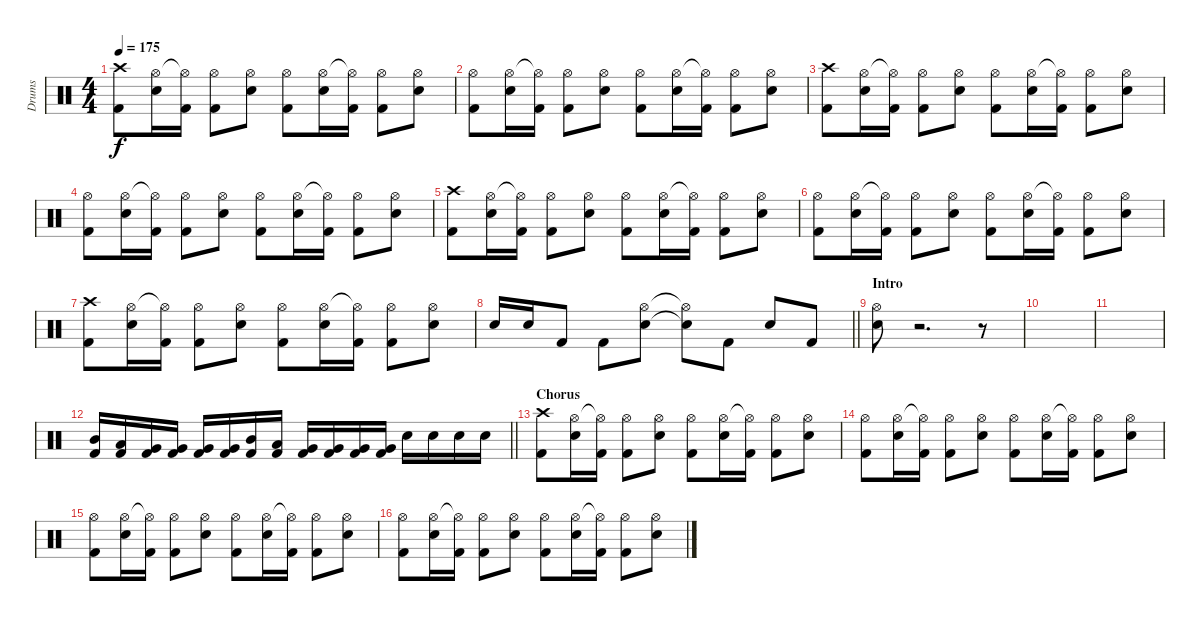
\track ("Drums" "Drums") {instrument percussion}
\staff {score}
\articulation defaults
\ts (4 4)
\tempo 175
\clef neutral
\ks c
("Crash high (hit)" "Kick (hit) 2").8{dy f} ("Hi-Hat (open)" "Electric Snare (hit)").16 ("Hi-Hat (open)"{t} "Kick (hit) 2").16 ("Hi-Hat (open)" "Kick (hit) 2").8 ("Hi-Hat (open)" "Electric Snare (hit)").8 ("Hi-Hat (open)" "Kick (hit) 2").8 ("Hi-Hat (open)" "Electric Snare (hit)").16 ("Hi-Hat (open)"{t} "Kick (hit) 2").16 ("Hi-Hat (open)" "Kick (hit) 2").8 ("Hi-Hat (open)" "Electric Snare (hit)").8 |
("Hi-Hat (open)" "Kick (hit) 2").8 ("Hi-Hat (open)" "Electric Snare (hit)").16 ("Hi-Hat (open)"{t} "Kick (hit) 2").16 ("Hi-Hat (open)" "Kick (hit) 2").8 ("Hi-Hat (open)" "Electric Snare (hit)").8 ("Hi-Hat (open)" "Kick (hit) 2").8 ("Hi-Hat (open)" "Electric Snare (hit)").16 ("Hi-Hat (open)"{t} "Kick (hit) 2").16 ("Hi-Hat (open)" "Kick (hit) 2").8 ("Hi-Hat (open)" "Electric Snare (hit)").8 |
("Crash high (hit)" "Kick (hit) 2").8 ("Hi-Hat (open)" "Electric Snare (hit)").16 ("Hi-Hat (open)"{t} "Kick (hit) 2").16 ("Hi-Hat (open)" "Kick (hit) 2").8 ("Hi-Hat (open)" "Electric Snare (hit)").8 ("Hi-Hat (open)" "Kick (hit) 2").8 ("Hi-Hat (open)" "Electric Snare (hit)").16 ("Hi-Hat (open)"{t} "Kick (hit) 2").16 ("Hi-Hat (open)" "Kick (hit) 2").8 ("Hi-Hat (open)" "Electric Snare (hit)").8 |
("Hi-Hat (open)" "Kick (hit) 2").8 ("Hi-Hat (open)" "Electric Snare (hit)").16 ("Hi-Hat (open)"{t} "Kick (hit) 2").16 ("Hi-Hat (open)" "Kick (hit) 2").8 ("Hi-Hat (open)" "Electric Snare (hit)").8 ("Hi-Hat (open)" "Kick (hit) 2").8 ("Hi-Hat (open)" "Electric Snare (hit)").16 ("Hi-Hat (open)"{t} "Kick (hit) 2").16 ("Hi-Hat (open)" "Kick (hit) 2").8 ("Hi-Hat (open)" "Electric Snare (hit)").8 |
("Crash high (hit)" "Kick (hit) 2").8 ("Hi-Hat (open)" "Electric Snare (hit)").16 ("Hi-Hat (open)"{t} "Kick (hit) 2").16 ("Hi-Hat (open)" "Kick (hit) 2").8 ("Hi-Hat (open)" "Electric Snare (hit)").8 ("Hi-Hat (open)" "Kick (hit) 2").8 ("Hi-Hat (open)" "Electric Snare (hit)").16 ("Hi-Hat (open)"{t} "Kick (hit) 2").16 ("Hi-Hat (open)" "Kick (hit) 2").8 ("Hi-Hat (open)" "Electric Snare (hit)").8 |
("Hi-Hat (open)" "Kick (hit) 2").8 ("Hi-Hat (open)" "Electric Snare (hit)").16 ("Hi-Hat (open)"{t} "Kick (hit) 2").16 ("Hi-Hat (open)" "Kick (hit) 2").8 ("Hi-Hat (open)" "Electric Snare (hit)").8 ("Hi-Hat (open)" "Kick (hit) 2").8 ("Hi-Hat (open)" "Electric Snare (hit)").16 ("Hi-Hat (open)"{t} "Kick (hit) 2").16 ("Hi-Hat (open)" "Kick (hit) 2").8 ("Hi-Hat (open)" "Electric Snare (hit)").8 |
("Crash high (hit)" "Kick (hit) 2").8 ("Hi-Hat (open)" "Electric Snare (hit)").16 ("Hi-Hat (open)"{t} "Kick (hit) 2").16 ("Hi-Hat (open)" "Kick (hit) 2").8 ("Hi-Hat (open)" "Electric Snare (hit)").8 ("Hi-Hat (open)" "Kick (hit) 2").8 ("Hi-Hat (open)" "Electric Snare (hit)").16 ("Hi-Hat (open)"{t} "Kick (hit) 2").16 ("Hi-Hat (open)" "Kick (hit) 2").8 ("Hi-Hat (open)" "Electric Snare (hit)").8 |
\barLineRight lightlight "Electric Snare (hit)".16 "Electric Snare (hit)".16 "Kick (hit) 2".8 "Kick (hit) 2".8
("Hi-Hat (open)" "Electric Snare (hit)").8 ("Hi-Hat (open)"{t} "Electric Snare (hit)"{t}).8 "Kick (hit) 2".8 "Electric Snare (hit)".8 "Kick (hit) 2".8 |
\section ("" "Intro")
("Hi-Hat (open)" "Electric Snare (hit)").8 r.2{d} r.8 |
|
|
\barLineRight lightlight
("Mid Tom (hit)" "Kick (hit) 2").16 ("Low Tom (hit)" "Kick (hit) 2").16 ("Very Low Tom (hit)" "Kick (hit) 2").16 ("Very Low Tom (hit)" "Kick (hit) 2").16 ("Very Low Tom (hit)" "Kick (hit) 2").16 ("Very Low Tom (hit)" "Kick (hit) 2").16 ("Mid Tom (hit)" "Kick (hit) 2").16 ("Low Tom (hit)" "Kick (hit) 2").16 ("Very Low Tom (hit)" "Kick (hit) 2").16 ("Very Low Tom (hit)" "Kick (hit) 2").16 ("Very Low Tom (hit)" "Kick (hit) 2").16 ("Very Low Tom (hit)" "Kick (hit) 2").16 "Electric Snare (hit)".16 "Electric Snare (hit)".16 "Electric Snare (hit)".16 "Electric Snare (hit)".16 |
\section ("" "Chorus")
("Crash high (hit)" "Kick (hit) 2").8 ("Hi-Hat (open)" "Electric Snare (hit)").16 ("Hi-Hat (open)"{t} "Kick (hit) 2").16 ("Hi-Hat (open)" "Kick (hit) 2").8 ("Hi-Hat (open)" "Electric Snare (hit)").8 ("Hi-Hat (open)" "Kick (hit) 2").8 ("Hi-Hat (open)" "Electric Snare (hit)").16 ("Hi-Hat (open)"{t} "Kick (hit) 2").16 ("Hi-Hat (open)" "Kick (hit) 2").8 ("Hi-Hat (open)" "Electric Snare (hit)").8 |
("Hi-Hat (open)" "Kick (hit) 2").8 ("Hi-Hat (open)" "Electric Snare (hit)").16 ("Hi-Hat (open)"{t} "Kick (hit) 2").16 ("Hi-Hat (open)" "Kick (hit) 2").8 ("Hi-Hat (open)" "Electric Snare (hit)").8 ("Hi-Hat (open)" "Kick (hit) 2").8 ("Hi-Hat (open)" "Electric Snare (hit)").16 ("Hi-Hat (open)"{t} "Kick (hit) 2").16 ("Hi-Hat (open)" "Kick (hit) 2").8 ("Hi-Hat (open)" "Electric Snare (hit)").8 |
("Hi-Hat (open)" "Kick (hit) 2").8 ("Hi-Hat (open)" "Electric Snare (hit)").16 ("Hi-Hat (open)"{t} "Kick (hit) 2").16 ("Hi-Hat (open)" "Kick (hit) 2").8 ("Hi-Hat (open)" "Electric Snare (hit)").8 ("Hi-Hat (open)" "Kick (hit) 2").8 ("Hi-Hat (open)" "Electric Snare (hit)").16 ("Hi-Hat (open)"{t} "Kick (hit) 2").16 ("Hi-Hat (open)" "Kick (hit) 2").8 ("Hi-Hat (open)" "Electric Snare (hit)").8 |
("Hi-Hat (open)" "Kick (hit) 2").8 ("Hi-Hat (open)" "Electric Snare (hit)").16 ("Hi-Hat (open)"{t} "Kick (hit) 2").16 ("Hi-Hat (open)" "Kick (hit) 2").8 ("Hi-Hat (open)" "Electric Snare (hit)").8 ("Hi-Hat (open)" "Kick (hit) 2").8 ("Hi-Hat (open)" "Electric Snare (hit)").16 ("Hi-Hat (open)"{t} "Kick (hit) 2").16 ("Hi-Hat (open)" "Kick (hit) 2").8 ("Hi-Hat (open)" "Electric Snare (hit)").8
